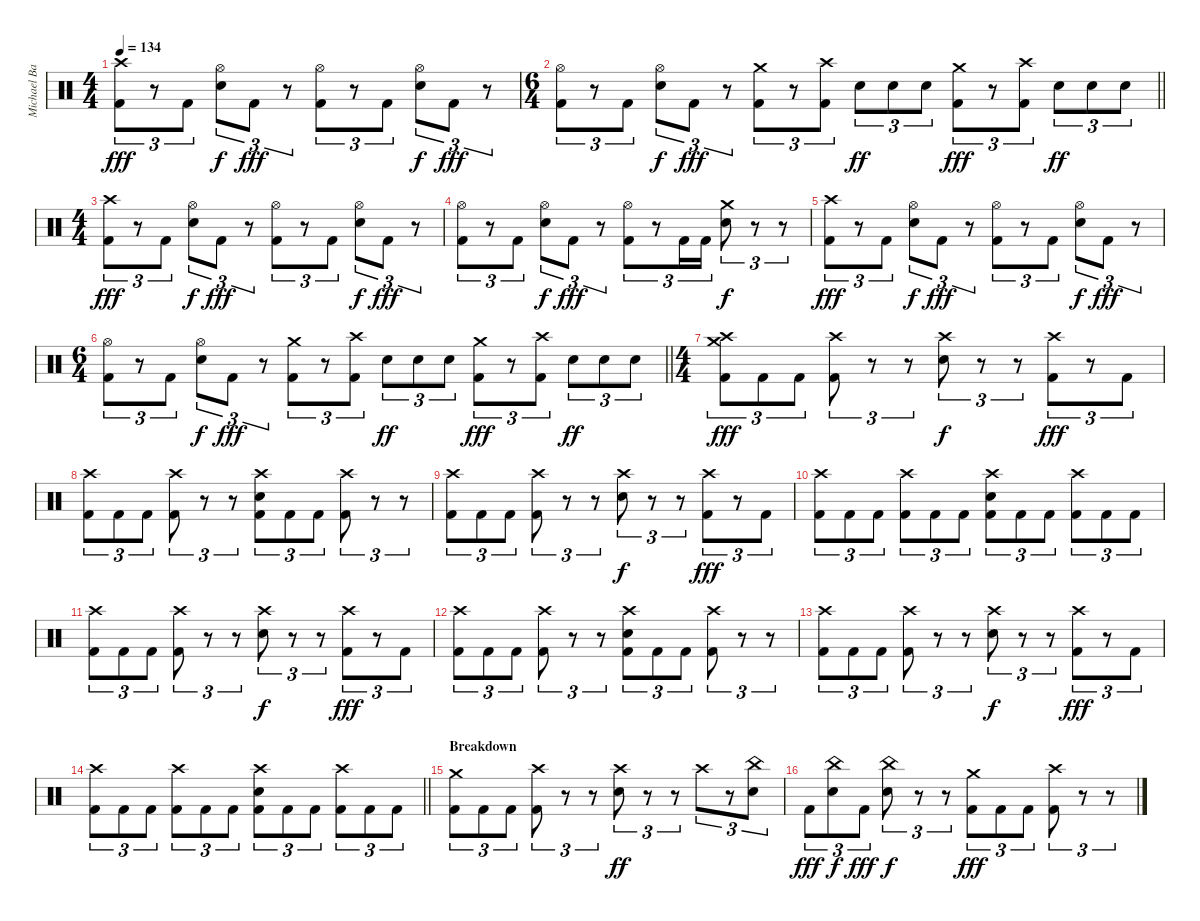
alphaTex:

\track ("Michael Bartlett " "Michael Ba") {instrument percussion}
\staff {score}
\articulation defaults
\ts (4 4)
\tempo 134
\clef neutral
\ks c
("Crash high (hit)" "Kick (hit) 2").8{tu (3 2) dy fff} r.8{tu (3 2)} "Kick (hit) 2".8{tu (3 2)} ("Hi-Hat (open)" "Electric Snare (hit)").8{tu (3 2) dy f} "Kick (hit) 2".8{tu (3 2) dy fff} r.8{tu (3 2)} ("Hi-Hat (open)" "Kick (hit) 2").8{tu (3 2)} r.8{tu (3 2)} "Kick (hit) 2".8{tu (3 2)} ("Hi-Hat (open)" "Electric Snare (hit)").8{tu (3 2) dy f} "Kick (hit) 2".8{tu (3 2) dy fff} r.8{tu (3 2)} |
\ts (6 4)
\barLineRight lightlight
("Hi-Hat (open)" "Kick (hit) 2").8{tu (3 2)} r.8{tu (3 2)} "Kick (hit) 2".8{tu (3 2)} ("Hi-Hat (open)" "Electric Snare (hit)").8{tu (3 2) dy f} "Kick (hit) 2".8{tu (3 2) dy fff} r.8{tu (3 2)} ("Crash medium (hit)" "Kick (hit) 2").8{tu (3 2)} r.8{tu (3 2)} ("Crash high (hit)" "Kick (hit) 2").8{tu (3 2)} "Electric Snare (hit)".8{tu (3 2) dy ff} "Electric Snare (hit)".8{tu (3 2)} "Electric Snare (hit)".8{tu (3 2)} ("Crash medium (hit)" "Kick (hit) 2").8{tu (3 2) dy fff} r.8{tu (3 2)} ("Crash high (hit)" "Kick (hit) 2").8{tu (3 2)} "Electric Snare (hit)".8{tu (3 2) dy ff} "Electric Snare (hit)".8{tu (3 2)} "Electric Snare (hit)".8{tu (3 2)} |
\ts (4 4)
("Crash high (hit)" "Kick (hit) 2").8{tu (3 2) dy fff} r.8{tu (3 2)} "Kick (hit) 2".8{tu (3 2)} ("Hi-Hat (open)" "Electric Snare (hit)").8{tu (3 2) dy f} "Kick (hit) 2".8{tu (3 2) dy fff} r.8{tu (3 2)} ("Hi-Hat (open)" "Kick (hit) 2").8{tu (3 2)} r.8{tu (3 2)} "Kick (hit) 2".8{tu (3 2)} ("Hi-Hat (open)" "Electric Snare (hit)").8{tu (3 2) dy f} "Kick (hit) 2".8{tu (3 2) dy fff} r.8{tu (3 2)} |
("Hi-Hat (open)" "Kick (hit) 2").8{tu (3 2)} r.8{tu (3 2)} "Kick (hit) 2".8{tu (3 2)} ("Hi-Hat (open)" "Electric Snare (hit)").8{tu (3 2) dy f} "Kick (hit) 2".8{tu (3 2) dy fff} r.8{tu (3 2)} ("Hi-Hat (open)" "Kick (hit) 2").8{tu (3 2)} r.8{tu (3 2)} "Kick (hit) 2".16{tu (3 2)} "Kick (hit) 2".16{tu (3 2)} ("Crash medium (hit)" "Electric Snare (hit)").8{tu (3 2) dy f} r.8{tu (3 2)} r.8{tu (3 2)} |
("Crash high (hit)" "Kick (hit) 2").8{tu (3 2) dy fff} r.8{tu (3 2)} "Kick (hit) 2".8{tu (3 2)} ("Hi-Hat (open)" "Electric Snare (hit)").8{tu (3 2) dy f} "Kick (hit) 2".8{tu (3 2) dy fff} r.8{tu (3 2)} ("Hi-Hat (open)" "Kick (hit) 2").8{tu (3 2)} r.8{tu (3 2)} "Kick (hit) 2".8{tu (3 2)} ("Hi-Hat (open)" "Electric Snare (hit)").8{tu (3 2) dy f} "Kick (hit) 2".8{tu (3 2) dy fff} r.8{tu (3 2)} |
\ts (6 4)
\barLineRight lightlight
("Hi-Hat (open)" "Kick (hit) 2").8{tu (3 2)} r.8{tu (3 2)} "Kick (hit) 2".8{tu (3 2)} ("Hi-Hat (open)" "Electric Snare (hit)").8{tu (3 2) dy f} "Kick (hit) 2".8{tu (3 2) dy fff} r.8{tu (3 2)} ("Crash medium (hit)" "Kick (hit) 2").8{tu (3 2)} r.8{tu (3 2)} ("Crash high (hit)" "Kick (hit) 2").8{tu (3 2)} "Electric Snare (hit)".8{tu (3 2) dy ff} "Electric Snare (hit)".8{tu (3 2)} "Electric Snare (hit)".8{tu (3 2)} ("Crash medium (hit)" "Kick (hit) 2").8{tu (3 2) dy fff} r.8{tu (3 2)} ("Crash high (hit)" "Kick (hit) 2").8{tu (3 2)} "Electric Snare (hit)".8{tu (3 2) dy ff} "Electric Snare (hit)".8{tu (3 2)} "Electric Snare (hit)".8{tu (3 2)} |
\ts (4 4)
("Crash high (hit)" "Crash medium (hit)" "Kick (hit) 2").8{tu (3 2) dy fff} "Kick (hit) 2".8{tu (3 2)} "Kick (hit) 2".8{tu (3 2)} ("Crash high (hit)" "Kick (hit) 2").8{tu (3 2)} r.8{tu (3 2)} r.8{tu (3 2)} ("Crash high (hit)" "Electric Snare (hit)").8{tu (3 2) dy f} r.8{tu (3 2)} r.8{tu (3 2)} ("Crash high (hit)" "Kick (hit) 2").8{tu (3 2) dy fff} r.8{tu (3 2)} "Kick (hit) 2".8{tu (3 2)} |
("Crash high (hit)" "Kick (hit) 2").8{tu (3 2)} "Kick (hit) 2".8{tu (3 2)} "Kick (hit) 2".8{tu (3 2)} ("Crash high (hit)" "Kick (hit) 2").8{tu (3 2)} r.8{tu (3 2)} r.8{tu (3 2)} ("Crash high (hit)" "Electric Snare (hit)" "Kick (hit) 2").8{tu (3 2)} "Kick (hit) 2".8{tu (3 2)} "Kick (hit) 2".8{tu (3 2)} ("Crash high (hit)" "Kick (hit) 2").8{tu (3 2)} r.8{tu (3 2)} r.8{tu (3 2)} |
("Crash high (hit)" "Kick (hit) 2").8{tu (3 2)} "Kick (hit) 2".8{tu (3 2)} "Kick (hit) 2".8{tu (3 2)} ("Crash high (hit)" "Kick (hit) 2").8{tu (3 2)} r.8{tu (3 2)} r.8{tu (3 2)} ("Crash high (hit)" "Electric Snare (hit)").8{tu (3 2) dy f} r.8{tu (3 2)} r.8{tu (3 2)} ("Crash high (hit)" "Kick (hit) 2").8{tu (3 2) dy fff} r.8{tu (3 2)} "Kick (hit) 2".8{tu (3 2)} |
("Crash high (hit)" "Kick (hit) 2").8{tu (3 2)} "Kick (hit) 2".8{tu (3 2)} "Kick (hit) 2".8{tu (3 2)} ("Crash high (hit)" "Kick (hit) 2").8{tu (3 2)} "Kick (hit) 2".8{tu (3 2)} "Kick (hit) 2".8{tu (3 2)} ("Crash high (hit)" "Electric Snare (hit)" "Kick (hit) 2").8{tu (3 2)} "Kick (hit) 2".8{tu (3 2)} "Kick (hit) 2".8{tu (3 2)} ("Crash high (hit)" "Kick (hit) 2").8{tu (3 2)} "Kick (hit) 2".8{tu (3 2)} "Kick (hit) 2".8{tu (3 2)} |
("Crash high (hit)" "Kick (hit) 2").8{tu (3 2)} "Kick (hit) 2".8{tu (3 2)} "Kick (hit) 2".8{tu (3 2)} ("Crash high (hit)" "Kick (hit) 2").8{tu (3 2)} r.8{tu (3 2)} r.8{tu (3 2)} ("Crash high (hit)" "Electric Snare (hit)").8{tu (3 2) dy f} r.8{tu (3 2)} r.8{tu (3 2)} ("Crash high (hit)" "Kick (hit) 2").8{tu (3 2) dy fff} r.8{tu (3 2)} "Kick (hit) 2".8{tu (3 2)} |
("Crash high (hit)" "Kick (hit) 2").8{tu (3 2)} "Kick (hit) 2".8{tu (3 2)} "Kick (hit) 2".8{tu (3 2)} ("Crash high (hit)" "Kick (hit) 2").8{tu (3 2)} r.8{tu (3 2)} r.8{tu (3 2)} ("Crash high (hit)" "Electric Snare (hit)" "Kick (hit) 2").8{tu (3 2)} "Kick (hit) 2".8{tu (3 2)} "Kick (hit) 2".8{tu (3 2)} ("Crash high (hit)" "Kick (hit) 2").8{tu (3 2)} r.8{tu (3 2)} r.8{tu (3 2)} |
("Crash high (hit)" "Kick (hit) 2").8{tu (3 2)} "Kick (hit) 2".8{tu (3 2)} "Kick (hit) 2".8{tu (3 2)} ("Crash high (hit)" "Kick (hit) 2").8{tu (3 2)} r.8{tu (3 2)} r.8{tu (3 2)} ("Crash high (hit)" "Electric Snare (hit)").8{tu (3 2) dy f} r.8{tu (3 2)} r.8{tu (3 2)} ("Crash high (hit)" "Kick (hit) 2").8{tu (3 2) dy fff} r.8{tu (3 2)} "Kick (hit) 2".8{tu (3 2)} |
\barLineRight lightlight
("Crash high (hit)" "Kick (hit) 2").8{tu (3 2)} "Kick (hit) 2".8{tu (3 2)} "Kick (hit) 2".8{tu (3 2)} ("Crash high (hit)" "Kick (hit) 2").8{tu (3 2)} "Kick (hit) 2".8{tu (3 2)} "Kick (hit) 2".8{tu (3 2)} ("Crash high (hit)" "Electric Snare (hit)" "Kick (hit) 2").8{tu (3 2)} "Kick (hit) 2".8{tu (3 2)} "Kick (hit) 2".8{tu (3 2)} ("Crash high (hit)" "Kick (hit) 2").8{tu (3 2)} "Kick (hit) 2".8{tu (3 2)} "Kick (hit) 2".8{tu (3 2)} |
\section ("" "Breakdown")
("Crash medium (hit)" "Kick (hit) 2").8{tu (3 2)} "Kick (hit) 2".8{tu (3 2)} "Kick (hit) 2".8{tu (3 2)} ("Crash high (hit)" "Kick (hit) 2").8{tu (3 2)} r.8{tu (3 2)} r.8{tu (3 2)} ("Crash high (hit)" "Electric Snare (hit)").8{tu (3 2) dy ff} r.8{tu (3 2)} r.8{tu (3 2)} "Crash high (hit)".8{tu (3 2)} r.8{tu (3 2)} ("China (hit)" "Electric Snare (hit)").8{tu (3 2)} |
"Kick (hit) 2".8{tu (3 2) dy fff} ("China (hit)" "Electric Snare (hit)").8{tu (3 2) dy f} "Kick (hit) 2".8{tu (3 2) dy fff} ("China (hit)" "Electric Snare (hit)").8{tu (3 2) dy f} r.8{tu (3 2)} r.8{tu (3 2)} ("Crash medium (hit)" "Kick (hit) 2").8{tu (3 2) dy fff} "Kick (hit) 2".8{tu (3 2)} "Kick (hit) 2".8{tu (3 2)} ("Crash high (hit)" "Kick (hit) 2").8{tu (3 2)} r.8{tu (3 2)} r.8{tu (3 2)}
